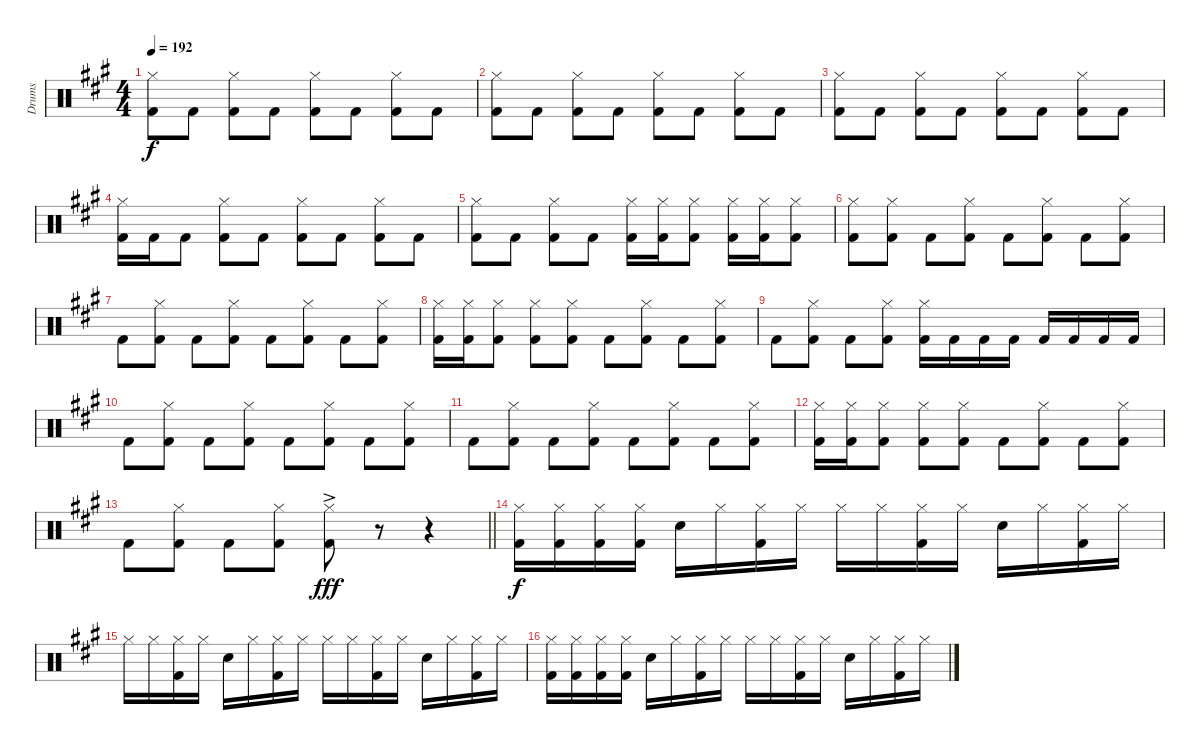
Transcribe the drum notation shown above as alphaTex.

\track ("Drums" "Drums") {instrument percussion}
\staff {score}
\articulation defaults
\ts (4 4)
\tempo 192
\clef neutral
\ks f#minor
("Hi-Hat (closed)" "Kick (hit) 2").8{dy f} "Kick (hit) 2".8 ("Hi-Hat (closed)" "Kick (hit) 2").8 "Kick (hit) 2".8 ("Hi-Hat (closed)" "Kick (hit) 2").8 "Kick (hit) 2".8 ("Hi-Hat (closed)" "Kick (hit) 2").8 "Kick (hit) 2".8 |
("Hi-Hat (closed)" "Kick (hit) 2").8 "Kick (hit) 2".8 ("Hi-Hat (closed)" "Kick (hit) 2").8 "Kick (hit) 2".8 ("Hi-Hat (closed)" "Kick (hit) 2").8 "Kick (hit) 2".8 ("Hi-Hat (closed)" "Kick (hit) 2").8 "Kick (hit) 2".8 |
("Hi-Hat (closed)" "Kick (hit) 2").8 "Kick (hit) 2".8 ("Hi-Hat (closed)" "Kick (hit) 2").8 "Kick (hit) 2".8 ("Hi-Hat (closed)" "Kick (hit) 2").8 "Kick (hit) 2".8 ("Hi-Hat (closed)" "Kick (hit) 2").8 "Kick (hit) 2".8 |
("Hi-Hat (closed)" "Kick (hit) 2").16 "Kick (hit) 2".16 "Kick (hit) 2".8 ("Hi-Hat (closed)" "Kick (hit) 2").8 "Kick (hit) 2".8 ("Hi-Hat (closed)" "Kick (hit) 2").8 "Kick (hit) 2".8 ("Hi-Hat (closed)" "Kick (hit) 2").8 "Kick (hit) 2".8 |
("Hi-Hat (closed)" "Kick (hit) 2").8 "Kick (hit) 2".8 ("Hi-Hat (closed)" "Kick (hit) 2").8 "Kick (hit) 2".8 ("Hi-Hat (closed)" "Kick (hit) 2").16 ("Hi-Hat (closed)" "Kick (hit) 2").16 ("Hi-Hat (closed)" "Kick (hit) 2").8 ("Hi-Hat (closed)" "Kick (hit) 2").16 ("Hi-Hat (closed)" "Kick (hit) 2").16 ("Hi-Hat (closed)" "Kick (hit) 2").8 |
("Hi-Hat (closed)" "Kick (hit) 2").8 ("Hi-Hat (closed)" "Kick (hit) 2").8 "Kick (hit) 2".8 ("Hi-Hat (closed)" "Kick (hit) 2").8 "Kick (hit) 2".8 ("Hi-Hat (closed)" "Kick (hit) 2").8 "Kick (hit) 2".8 ("Hi-Hat (closed)" "Kick (hit) 2").8 |
"Kick (hit) 2".8 ("Hi-Hat (closed)" "Kick (hit) 2").8 "Kick (hit) 2".8 ("Hi-Hat (closed)" "Kick (hit) 2").8 "Kick (hit) 2".8 ("Hi-Hat (closed)" "Kick (hit) 2").8 "Kick (hit) 2".8 ("Hi-Hat (closed)" "Kick (hit) 2").8 |
("Hi-Hat (closed)" "Kick (hit) 2").16 ("Hi-Hat (closed)" "Kick (hit) 2").16 ("Hi-Hat (closed)" "Kick (hit) 2").8 ("Hi-Hat (closed)" "Kick (hit) 2").8 ("Hi-Hat (closed)" "Kick (hit) 2").8 "Kick (hit) 2".8 ("Hi-Hat (closed)" "Kick (hit) 2").8 "Kick (hit) 2".8 ("Hi-Hat (closed)" "Kick (hit) 2").8 |
"Kick (hit) 2".8 ("Hi-Hat (closed)" "Kick (hit) 2").8 "Kick (hit) 2".8 ("Hi-Hat (closed)" "Kick (hit) 2").8 ("Hi-Hat (closed)" "Kick (hit) 2").16 "Kick (hit) 2".16 "Kick (hit) 2".16 "Kick (hit) 2".16 "Kick (hit) 2".16 "Kick (hit) 2".16 "Kick (hit) 2".16 "Kick (hit) 2".16 |
"Kick (hit) 2".8 ("Hi-Hat (closed)" "Kick (hit) 2").8 "Kick (hit) 2".8 ("Hi-Hat (closed)" "Kick (hit) 2").8 "Kick (hit) 2".8 ("Hi-Hat (closed)" "Kick (hit) 2").8 "Kick (hit) 2".8 ("Hi-Hat (closed)" "Kick (hit) 2").8 |
"Kick (hit) 2".8 ("Hi-Hat (closed)" "Kick (hit) 2").8 "Kick (hit) 2".8 ("Hi-Hat (closed)" "Kick (hit) 2").8 "Kick (hit) 2".8 ("Hi-Hat (closed)" "Kick (hit) 2").8 "Kick (hit) 2".8 ("Hi-Hat (closed)" "Kick (hit) 2").8 |
("Hi-Hat (closed)" "Kick (hit) 2").16 ("Hi-Hat (closed)" "Kick (hit) 2").16 ("Hi-Hat (closed)" "Kick (hit) 2").8 ("Hi-Hat (closed)" "Kick (hit) 2").8 ("Hi-Hat (closed)" "Kick (hit) 2").8 "Kick (hit) 2".8 ("Hi-Hat (closed)" "Kick (hit) 2").8 "Kick (hit) 2".8 ("Hi-Hat (closed)" "Kick (hit) 2").8 |
\barLineRight lightlight "Kick (hit) 2".8
("Hi-Hat (closed)" "Kick (hit) 2").8 "Kick (hit) 2".8 ("Hi-Hat (closed)" "Kick (hit) 2").8 ("Hi-Hat (closed)"{ac} "Kick (hit) 2"{ac}).8{dy fff} r.8 r.4 |
("Hi-Hat (closed)" "Kick (hit) 2").16{dy f} ("Hi-Hat (closed)" "Kick (hit) 2").16 ("Hi-Hat (closed)" "Kick (hit) 2").16 ("Hi-Hat (closed)" "Kick (hit) 2").16 "Snare (hit) 2".16 "Hi-Hat (closed)".16 ("Hi-Hat (closed)" "Kick (hit) 2").16 "Hi-Hat (closed)".16 "Hi-Hat (closed)".16 "Hi-Hat (closed)".16 ("Hi-Hat (closed)" "Kick (hit) 2").16 "Hi-Hat (closed)".16 "Snare (hit) 2".16 "Hi-Hat (closed)".16 ("Hi-Hat (closed)" "Kick (hit) 2").16 "Hi-Hat (closed)".16 |
"Hi-Hat (closed)".16 "Hi-Hat (closed)".16 ("Hi-Hat (closed)" "Kick (hit) 2").16 "Hi-Hat (closed)".16 "Snare (hit) 2".16 "Hi-Hat (closed)".16 ("Hi-Hat (closed)" "Kick (hit) 2").16 "Hi-Hat (closed)".16 "Hi-Hat (closed)".16 "Hi-Hat (closed)".16 ("Hi-Hat (closed)" "Kick (hit) 2").16 "Hi-Hat (closed)".16 "Snare (hit) 2".16 "Hi-Hat (closed)".16 ("Hi-Hat (closed)" "Kick (hit) 2").16 "Hi-Hat (closed)".16 |
("Hi-Hat (closed)" "Kick (hit) 2").16 ("Hi-Hat (closed)" "Kick (hit) 2").16 ("Hi-Hat (closed)" "Kick (hit) 2").16 ("Hi-Hat (closed)" "Kick (hit) 2").16 "Snare (hit) 2".16 "Hi-Hat (closed)".16 ("Hi-Hat (closed)" "Kick (hit) 2").16 "Hi-Hat (closed)".16 "Hi-Hat (closed)".16 "Hi-Hat (closed)".16 ("Hi-Hat (closed)" "Kick (hit) 2").16 "Hi-Hat (closed)".16 "Snare (hit) 2".16 "Hi-Hat (closed)".16 ("Hi-Hat (closed)" "Kick (hit) 2").16 "Hi-Hat (closed)".16
